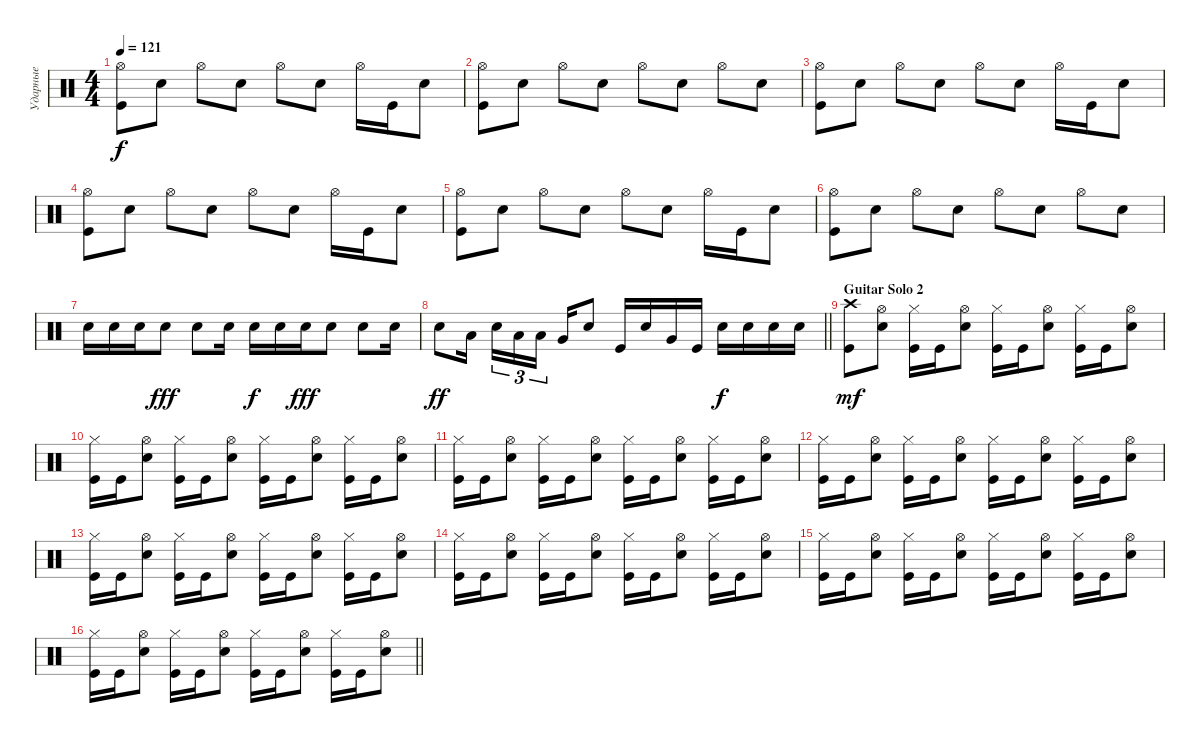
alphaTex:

\track ("Ударные" "Ударные") {instrument percussion}
\staff {score}
\articulation defaults
\ts (4 4)
\tempo 121
\clef neutral
\ks aminor
("Kick (hit)" "Hi-Hat (open)").8{dy f} "Snare (hit) 2".8 "Hi-Hat (open)".8 "Snare (hit) 2".8 "Hi-Hat (open)".8 "Snare (hit) 2".8 "Hi-Hat (open)".16 "Kick (hit)".16 "Snare (hit) 2".8 |
("Kick (hit)" "Hi-Hat (open)").8 "Snare (hit) 2".8 "Hi-Hat (open)".8 "Snare (hit) 2".8 "Hi-Hat (open)".8 "Snare (hit) 2".8 "Hi-Hat (open)".8 "Snare (hit) 2".8 |
("Kick (hit)" "Hi-Hat (open)").8 "Snare (hit) 2".8 "Hi-Hat (open)".8 "Snare (hit) 2".8 "Hi-Hat (open)".8 "Snare (hit) 2".8 "Hi-Hat (open)".16 "Kick (hit)".16 "Snare (hit) 2".8 |
("Kick (hit)" "Hi-Hat (open)").8 "Snare (hit) 2".8 "Hi-Hat (open)".8 "Snare (hit) 2".8 "Hi-Hat (open)".8 "Snare (hit) 2".8 "Hi-Hat (open)".16 "Kick (hit)".16 "Snare (hit) 2".8 |
("Kick (hit)" "Hi-Hat (open)").8 "Snare (hit) 2".8 "Hi-Hat (open)".8 "Snare (hit) 2".8 "Hi-Hat (open)".8 "Snare (hit) 2".8 "Hi-Hat (open)".16 "Kick (hit)".16 "Snare (hit) 2".8 |
("Kick (hit)" "Hi-Hat (open)").8 "Snare (hit) 2".8 "Hi-Hat (open)".8 "Snare (hit) 2".8 "Hi-Hat (open)".8 "Snare (hit) 2".8 "Hi-Hat (open)".8 "Snare (hit) 2".8 |
"Snare (hit) 2".16 "Snare (hit) 2".16 "Snare (hit) 2".16 "Snare (hit) 2".8{dy fff} "Snare (hit) 2".8 "Snare (hit) 2".16 "Snare (hit) 2".16{dy f} "Snare (hit) 2".16 "Snare (hit) 2".16{dy fff} "Snare (hit) 2".8 "Snare (hit) 2".8 "Snare (hit) 2".16 |
\barLineRight lightlight "Snare (hit) 2".8{dy ff} "Low Tom (hit)".16 "Snare (hit) 2".16{tu (3 2)} "Low Tom (hit)".16{tu (3 2)} "Low Tom (hit)".16{tu (3 2)} "Very Low Tom (hit)".16 "Snare (hit) 2".8 "Kick (hit)".16 "Snare (hit) 2".16 "Very Low Tom (hit)".16 "Kick (hit)".16 "Snare (hit) 2".16{dy f} "Snare (hit) 2".16 "Snare (hit) 2".16 "Snare (hit) 2".16
|
\section ("" "Guitar Solo 2")
("Kick (hit)" "Crash high (hit)").8{dy mf} ("Snare (hit) 2" "Hi-Hat (open)").8 ("Kick (hit)" "Hi-Hat (closed)").16 "Kick (hit)".16 ("Snare (hit) 2" "Hi-Hat (open)").8 ("Kick (hit)" "Hi-Hat (closed)").16 "Kick (hit)".16 ("Snare (hit) 2" "Hi-Hat (open)").8 ("Kick (hit)" "Hi-Hat (closed)").16 "Kick (hit)".16 ("Snare (hit) 2" "Hi-Hat (open)").8 |
("Kick (hit)" "Hi-Hat (closed)").16 "Kick (hit)".16 ("Snare (hit) 2" "Hi-Hat (open)").8 ("Kick (hit)" "Hi-Hat (closed)").16 "Kick (hit)".16 ("Snare (hit) 2" "Hi-Hat (open)").8 ("Kick (hit)" "Hi-Hat (closed)").16 "Kick (hit)".16 ("Snare (hit) 2" "Hi-Hat (open)").8 ("Kick (hit)" "Hi-Hat (closed)").16 "Kick (hit)".16 ("Snare (hit) 2" "Hi-Hat (open)").8 |
("Kick (hit)" "Hi-Hat (closed)").16 "Kick (hit)".16 ("Snare (hit) 2" "Hi-Hat (open)").8 ("Kick (hit)" "Hi-Hat (closed)").16 "Kick (hit)".16 ("Snare (hit) 2" "Hi-Hat (open)").8 ("Kick (hit)" "Hi-Hat (closed)").16 "Kick (hit)".16 ("Snare (hit) 2" "Hi-Hat (open)").8 ("Kick (hit)" "Hi-Hat (closed)").16 "Kick (hit)".16 ("Snare (hit) 2" "Hi-Hat (open)").8 |
("Kick (hit)" "Hi-Hat (closed)").16 "Kick (hit)".16 ("Snare (hit) 2" "Hi-Hat (open)").8 ("Kick (hit)" "Hi-Hat (closed)").16 "Kick (hit)".16 ("Snare (hit) 2" "Hi-Hat (open)").8 ("Kick (hit)" "Hi-Hat (closed)").16 "Kick (hit)".16 ("Snare (hit) 2" "Hi-Hat (open)").8 ("Kick (hit)" "Hi-Hat (closed)").16 "Kick (hit)".16 ("Snare (hit) 2" "Hi-Hat (open)").8 |
("Kick (hit)" "Hi-Hat (closed)").16 "Kick (hit)".16 ("Snare (hit) 2" "Hi-Hat (open)").8 ("Kick (hit)" "Hi-Hat (closed)").16 "Kick (hit)".16 ("Snare (hit) 2" "Hi-Hat (open)").8 ("Kick (hit)" "Hi-Hat (closed)").16 "Kick (hit)".16 ("Snare (hit) 2" "Hi-Hat (open)").8 ("Kick (hit)" "Hi-Hat (closed)").16 "Kick (hit)".16 ("Snare (hit) 2" "Hi-Hat (open)").8 |
("Kick (hit)" "Hi-Hat (closed)").16 "Kick (hit)".16 ("Snare (hit) 2" "Hi-Hat (open)").8 ("Kick (hit)" "Hi-Hat (closed)").16 "Kick (hit)".16 ("Snare (hit) 2" "Hi-Hat (open)").8 ("Kick (hit)" "Hi-Hat (closed)").16 "Kick (hit)".16 ("Snare (hit) 2" "Hi-Hat (open)").8 ("Kick (hit)" "Hi-Hat (closed)").16 "Kick (hit)".16 ("Snare (hit) 2" "Hi-Hat (open)").8 |
("Kick (hit)" "Hi-Hat (closed)").16 "Kick (hit)".16 ("Snare (hit) 2" "Hi-Hat (open)").8 ("Kick (hit)" "Hi-Hat (closed)").16 "Kick (hit)".16 ("Snare (hit) 2" "Hi-Hat (open)").8 ("Kick (hit)" "Hi-Hat (closed)").16 "Kick (hit)".16 ("Snare (hit) 2" "Hi-Hat (open)").8 ("Kick (hit)" "Hi-Hat (closed)").16 "Kick (hit)".16 ("Snare (hit) 2" "Hi-Hat (open)").8 |
\barLineRight lightlight
("Kick (hit)" "Hi-Hat (closed)").16 "Kick (hit)".16 ("Snare (hit) 2" "Hi-Hat (open)").8 ("Kick (hit)" "Hi-Hat (closed)").16 "Kick (hit)".16 ("Snare (hit) 2" "Hi-Hat (open)").8 ("Kick (hit)" "Hi-Hat (closed)").16 "Kick (hit)".16 ("Snare (hit) 2" "Hi-Hat (open)").8 ("Kick (hit)" "Hi-Hat (closed)").16 "Kick (hit)".16 ("Snare (hit) 2" "Hi-Hat (open)").8
